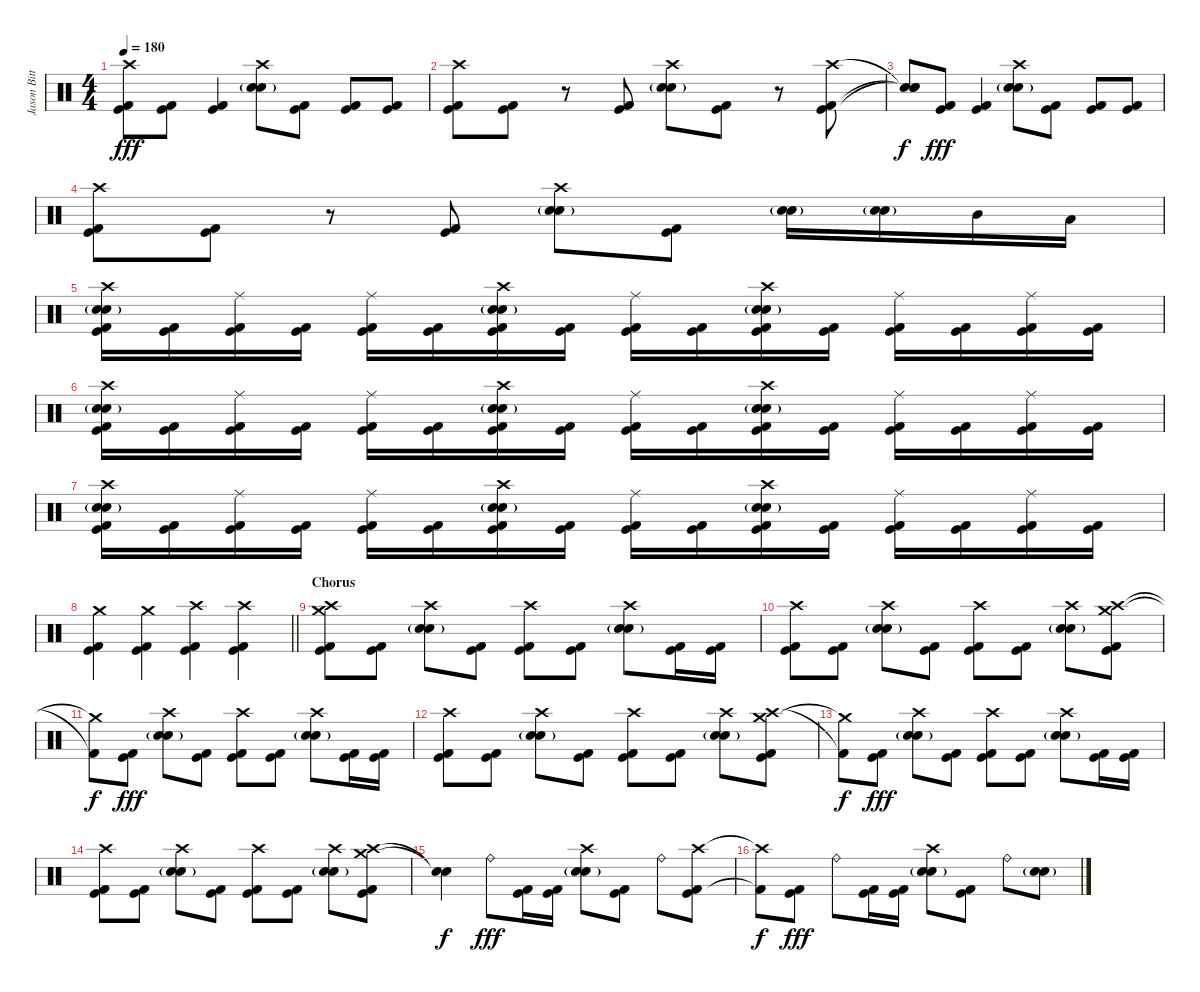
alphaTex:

\track ("Jason Bittner" "Jason Bitt") {instrument percussion}
\staff {score}
\articulation defaults
\ts (4 4)
\tempo 180
\clef neutral
\ks c
("Crash high (hit)" "Kick (hit)" "Kick (hit) 2").8{dy fff} ("Kick (hit)" "Kick (hit) 2").8 ("Kick (hit)" "Kick (hit) 2").4 ("Crash high (hit)" "Snare (hit) 2"{g} "Electric Snare (hit)").8 ("Kick (hit)" "Kick (hit) 2").8 ("Kick (hit)" "Kick (hit) 2").8 ("Kick (hit)" "Kick (hit) 2").8 |
("Crash high (hit)" "Kick (hit)" "Kick (hit) 2").8 ("Kick (hit)" "Kick (hit) 2").8 r.8 ("Kick (hit)" "Kick (hit) 2").8 ("Crash high (hit)" "Snare (hit) 2"{g} "Electric Snare (hit)").8 ("Kick (hit)" "Kick (hit) 2").8 r.8 ("Crash high (hit)" "Kick (hit)" "Kick (hit) 2").8 |
("Snare (hit)"{t} "Snare (hit)"{t} "Snare (hit)"{t}).8{dy f} ("Kick (hit)" "Kick (hit) 2").8{dy fff} ("Kick (hit)" "Kick (hit) 2").4 ("Crash high (hit)" "Snare (hit) 2"{g} "Electric Snare (hit)").8 ("Kick (hit)" "Kick (hit) 2").8 ("Kick (hit)" "Kick (hit) 2").8 ("Kick (hit)" "Kick (hit) 2").8 |
("Crash high (hit)" "Kick (hit)" "Kick (hit) 2").8 ("Kick (hit)" "Kick (hit) 2").8 r.8 ("Kick (hit)" "Kick (hit) 2").8 ("Crash high (hit)" "Snare (hit) 2"{g} "Electric Snare (hit)").8 ("Kick (hit)" "Kick (hit) 2").8 ("Snare (hit) 2"{g} "Electric Snare (hit)").16 ("Snare (hit) 2"{g} "Electric Snare (hit)").16 "Mid Tom (hit)".16 "Low Tom (hit)".16 |
("Crash high (hit)" "Snare (hit) 2"{g} "Electric Snare (hit)" "Kick (hit)" "Kick (hit) 2").16 ("Kick (hit)" "Kick (hit) 2").16 ("Ride (middle)" "Kick (hit)" "Kick (hit) 2").16 ("Kick (hit)" "Kick (hit) 2").16 ("Ride (middle)" "Kick (hit)" "Kick (hit) 2").16 ("Kick (hit)" "Kick (hit) 2").16 ("Crash high (hit)" "Snare (hit) 2"{g} "Electric Snare (hit)" "Kick (hit)" "Kick (hit) 2").16 ("Kick (hit)" "Kick (hit) 2").16 ("Ride (middle)" "Kick (hit)" "Kick (hit) 2").16 ("Kick (hit)" "Kick (hit) 2").16 ("Crash high (hit)" "Snare (hit) 2"{g} "Electric Snare (hit)" "Kick (hit)" "Kick (hit) 2").16 ("Kick (hit)" "Kick (hit) 2").16 ("Ride (middle)" "Kick (hit)" "Kick (hit) 2").16 ("Kick (hit)" "Kick (hit) 2").16 ("Ride (middle)" "Kick (hit)" "Kick (hit) 2").16 ("Kick (hit)" "Kick (hit) 2").16 |
("Crash high (hit)" "Snare (hit) 2"{g} "Electric Snare (hit)" "Kick (hit)" "Kick (hit) 2").16 ("Kick (hit)" "Kick (hit) 2").16 ("Ride (middle)" "Kick (hit)" "Kick (hit) 2").16 ("Kick (hit)" "Kick (hit) 2").16 ("Ride (middle)" "Kick (hit)" "Kick (hit) 2").16 ("Kick (hit)" "Kick (hit) 2").16 ("Crash high (hit)" "Snare (hit) 2"{g} "Electric Snare (hit)" "Kick (hit)" "Kick (hit) 2").16 ("Kick (hit)" "Kick (hit) 2").16 ("Ride (middle)" "Kick (hit)" "Kick (hit) 2").16 ("Kick (hit)" "Kick (hit) 2").16 ("Crash high (hit)" "Snare (hit) 2"{g} "Electric Snare (hit)" "Kick (hit)" "Kick (hit) 2").16 ("Kick (hit)" "Kick (hit) 2").16 ("Ride (middle)" "Kick (hit)" "Kick (hit) 2").16 ("Kick (hit)" "Kick (hit) 2").16 ("Ride (middle)" "Kick (hit)" "Kick (hit) 2").16 ("Kick (hit)" "Kick (hit) 2").16 |
("Crash high (hit)" "Snare (hit) 2"{g} "Electric Snare (hit)" "Kick (hit)" "Kick (hit) 2").16 ("Kick (hit)" "Kick (hit) 2").16 ("Ride (middle)" "Kick (hit)" "Kick (hit) 2").16 ("Kick (hit)" "Kick (hit) 2").16 ("Ride (middle)" "Kick (hit)" "Kick (hit) 2").16 ("Kick (hit)" "Kick (hit) 2").16 ("Crash high (hit)" "Snare (hit) 2"{g} "Electric Snare (hit)" "Kick (hit)" "Kick (hit) 2").16 ("Kick (hit)" "Kick (hit) 2").16 ("Ride (middle)" "Kick (hit)" "Kick (hit) 2").16 ("Kick (hit)" "Kick (hit) 2").16 ("Crash high (hit)" "Snare (hit) 2"{g} "Electric Snare (hit)" "Kick (hit)" "Kick (hit) 2").16 ("Kick (hit)" "Kick (hit) 2").16 ("Ride (middle)" "Kick (hit)" "Kick (hit) 2").16 ("Kick (hit)" "Kick (hit) 2").16 ("Ride (middle)" "Kick (hit)" "Kick (hit) 2").16 ("Kick (hit)" "Kick (hit) 2").16 |
\barLineRight lightlight
("Crash medium (hit)" "Kick (hit)" "Kick (hit) 2").4 ("Crash medium (hit)" "Kick (hit)" "Kick (hit) 2").4 ("Crash high (hit)" "Kick (hit)" "Kick (hit) 2").4 ("Crash high (hit)" "Kick (hit)" "Kick (hit) 2").4 |
\section ("" "Chorus")
("Crash medium (hit)" "Crash high (hit)" "Kick (hit)" "Kick (hit) 2").8 ("Kick (hit)" "Kick (hit) 2").8 ("Crash high (hit)" "Snare (hit) 2"{g} "Electric Snare (hit)").8 ("Kick (hit)" "Kick (hit) 2").8 ("Crash high (hit)" "Kick (hit)" "Kick (hit) 2").8 ("Kick (hit)" "Kick (hit) 2").8 ("Crash high (hit)" "Snare (hit) 2"{g} "Electric Snare (hit)").8 ("Kick (hit)" "Kick (hit) 2").16 ("Kick (hit)" "Kick (hit) 2").16 |
("Crash high (hit)" "Kick (hit)" "Kick (hit) 2").8 ("Kick (hit)" "Kick (hit) 2").8 ("Crash high (hit)" "Snare (hit) 2"{g} "Electric Snare (hit)").8 ("Kick (hit)" "Kick (hit) 2").8 ("Crash high (hit)" "Kick (hit)" "Kick (hit) 2").8 ("Kick (hit)" "Kick (hit) 2").8 ("Crash high (hit)" "Snare (hit) 2"{g} "Electric Snare (hit)").8 ("Crash medium (hit)" "Crash high (hit)" "Kick (hit)" "Kick (hit) 2").8 |
("Crash medium (hit)"{t} "Kick (hit) 2"{t}).8{dy f} ("Kick (hit)" "Kick (hit) 2").8{dy fff} ("Crash high (hit)" "Snare (hit) 2"{g} "Electric Snare (hit)").8 ("Kick (hit)" "Kick (hit) 2").8 ("Crash high (hit)" "Kick (hit)" "Kick (hit) 2").8 ("Kick (hit)" "Kick (hit) 2").8 ("Crash high (hit)" "Snare (hit) 2"{g} "Electric Snare (hit)").8 ("Kick (hit)" "Kick (hit) 2").16 ("Kick (hit)" "Kick (hit) 2").16 |
("Crash high (hit)" "Kick (hit)" "Kick (hit) 2").8 ("Kick (hit)" "Kick (hit) 2").8 ("Crash high (hit)" "Snare (hit) 2"{g} "Electric Snare (hit)").8 ("Kick (hit)" "Kick (hit) 2").8 ("Crash high (hit)" "Kick (hit)" "Kick (hit) 2").8 ("Kick (hit)" "Kick (hit) 2").8 ("Crash high (hit)" "Snare (hit) 2"{g} "Electric Snare (hit)").8 ("Crash medium (hit)" "Crash high (hit)" "Kick (hit)" "Kick (hit) 2").8 |
("Crash medium (hit)"{t} "Kick (hit) 2"{t}).8{dy f} ("Kick (hit)" "Kick (hit) 2").8{dy fff} ("Crash high (hit)" "Snare (hit) 2"{g} "Electric Snare (hit)").8 ("Kick (hit)" "Kick (hit) 2").8 ("Crash high (hit)" "Kick (hit)" "Kick (hit) 2").8 ("Kick (hit)" "Kick (hit) 2").8 ("Crash high (hit)" "Snare (hit) 2"{g} "Electric Snare (hit)").8 ("Kick (hit)" "Kick (hit) 2").16 ("Kick (hit)" "Kick (hit) 2").16 |
("Crash high (hit)" "Kick (hit)" "Kick (hit) 2").8 ("Kick (hit)" "Kick (hit) 2").8 ("Crash high (hit)" "Snare (hit) 2"{g} "Electric Snare (hit)").8 ("Kick (hit)" "Kick (hit) 2").8 ("Crash high (hit)" "Kick (hit)" "Kick (hit) 2").8 ("Kick (hit)" "Kick (hit) 2").8 ("Crash high (hit)" "Snare (hit) 2"{g} "Electric Snare (hit)").8 ("Crash medium (hit)" "Crash high (hit)" "Kick (hit)" "Kick (hit) 2").8 |
("Snare (hit)"{t} "Snare (hit)"{t}).4{dy f} "Ride (bell)".8{dy fff} ("Kick (hit)" "Kick (hit) 2").16 ("Kick (hit)" "Kick (hit) 2").16 ("Crash high (hit)" "Snare (hit) 2"{g} "Electric Snare (hit)").8 ("Kick (hit)" "Kick (hit) 2").8 "Ride (bell)".8 ("Crash high (hit)" "Kick (hit)" "Kick (hit) 2").8 |
("Crash high (hit)"{t} "Kick (hit) 2"{t}).8{dy f} ("Kick (hit)" "Kick (hit) 2").8{dy fff} "Ride (bell)".8 ("Kick (hit)" "Kick (hit) 2").16 ("Kick (hit)" "Kick (hit) 2").16 ("Crash high (hit)" "Snare (hit) 2"{g} "Electric Snare (hit)").8 ("Kick (hit)" "Kick (hit) 2").8 "Ride (bell)".8 ("Snare (hit) 2"{g} "Electric Snare (hit)").8
